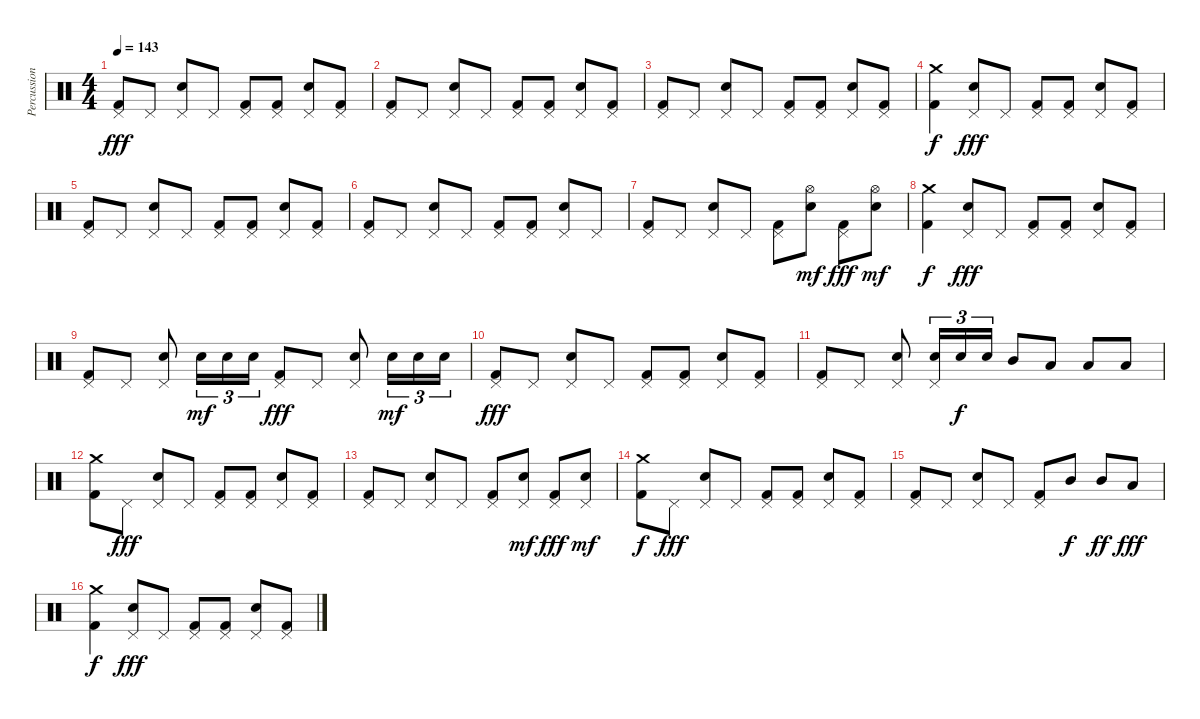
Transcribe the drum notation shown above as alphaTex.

\track ("Percussion" "Percussion") {instrument percussion}
\staff {score}
\articulation defaults
\ts (4 4)
\tempo 143
\clef neutral
\ks c
("Pedal Hi-Hat (hit)" "Kick (hit) 2").8{dy fff} "Pedal Hi-Hat (hit)".8 ("Pedal Hi-Hat (hit)" "Snare (hit) 2").8 "Pedal Hi-Hat (hit)".8 ("Pedal Hi-Hat (hit)" "Kick (hit) 2").8 ("Pedal Hi-Hat (hit)" "Kick (hit) 2").8 ("Pedal Hi-Hat (hit)" "Snare (hit) 2").8 ("Pedal Hi-Hat (hit)" "Kick (hit) 2").8 |
("Pedal Hi-Hat (hit)" "Kick (hit) 2").8 "Pedal Hi-Hat (hit)".8 ("Pedal Hi-Hat (hit)" "Snare (hit) 2").8 "Pedal Hi-Hat (hit)".8 ("Pedal Hi-Hat (hit)" "Kick (hit) 2").8 ("Pedal Hi-Hat (hit)" "Kick (hit) 2").8 ("Pedal Hi-Hat (hit)" "Snare (hit) 2").8 ("Pedal Hi-Hat (hit)" "Kick (hit) 2").8 |
("Pedal Hi-Hat (hit)" "Kick (hit) 2").8 "Pedal Hi-Hat (hit)".8 ("Pedal Hi-Hat (hit)" "Snare (hit) 2").8 "Pedal Hi-Hat (hit)".8 ("Pedal Hi-Hat (hit)" "Kick (hit) 2").8 ("Pedal Hi-Hat (hit)" "Kick (hit) 2").8 ("Pedal Hi-Hat (hit)" "Snare (hit) 2").8 ("Pedal Hi-Hat (hit)" "Kick (hit) 2").8 |
("Crash medium (hit)" "Kick (hit) 2").4{dy f} ("Pedal Hi-Hat (hit)" "Snare (hit) 2").8{dy fff} "Pedal Hi-Hat (hit)".8 ("Pedal Hi-Hat (hit)" "Kick (hit) 2").8 ("Pedal Hi-Hat (hit)" "Kick (hit) 2").8 ("Pedal Hi-Hat (hit)" "Snare (hit) 2").8 ("Pedal Hi-Hat (hit)" "Kick (hit) 2").8 |
("Pedal Hi-Hat (hit)" "Kick (hit) 2").8 "Pedal Hi-Hat (hit)".8 ("Pedal Hi-Hat (hit)" "Snare (hit) 2").8 "Pedal Hi-Hat (hit)".8 ("Pedal Hi-Hat (hit)" "Kick (hit) 2").8 ("Pedal Hi-Hat (hit)" "Kick (hit) 2").8 ("Pedal Hi-Hat (hit)" "Snare (hit) 2").8 ("Pedal Hi-Hat (hit)" "Kick (hit) 2").8 |
("Pedal Hi-Hat (hit)" "Kick (hit) 2").8 "Pedal Hi-Hat (hit)".8 ("Pedal Hi-Hat (hit)" "Snare (hit) 2").8 "Pedal Hi-Hat (hit)".8 ("Pedal Hi-Hat (hit)" "Kick (hit) 2").8 ("Pedal Hi-Hat (hit)" "Kick (hit) 2").8 ("Pedal Hi-Hat (hit)" "Snare (hit) 2").8 "Pedal Hi-Hat (hit)".8 |
("Pedal Hi-Hat (hit)" "Kick (hit) 2").8 "Pedal Hi-Hat (hit)".8 ("Pedal Hi-Hat (hit)" "Snare (hit) 2").8 "Pedal Hi-Hat (hit)".8 ("Pedal Hi-Hat (hit)" "Kick (hit) 2").8 ("Hi-Hat (open)" "Snare (hit) 2").8{dy mf} ("Pedal Hi-Hat (hit)" "Kick (hit) 2").8{dy fff} ("Hi-Hat (open)" "Snare (hit) 2").8{dy mf} |
("Crash medium (hit)" "Kick (hit) 2").4{dy f} ("Pedal Hi-Hat (hit)" "Snare (hit) 2").8{dy fff} "Pedal Hi-Hat (hit)".8 ("Pedal Hi-Hat (hit)" "Kick (hit) 2").8 ("Pedal Hi-Hat (hit)" "Kick (hit) 2").8 ("Pedal Hi-Hat (hit)" "Snare (hit) 2").8 ("Pedal Hi-Hat (hit)" "Kick (hit) 2").8 |
("Pedal Hi-Hat (hit)" "Kick (hit) 2").8 "Pedal Hi-Hat (hit)".8 ("Pedal Hi-Hat (hit)" "Snare (hit) 2").8 "Snare (hit) 2".16{tu (3 2) dy mf} "Snare (hit) 2".16{tu (3 2)} "Snare (hit) 2".16{tu (3 2)} ("Pedal Hi-Hat (hit)" "Kick (hit) 2").8{dy fff} "Pedal Hi-Hat (hit)".8 ("Pedal Hi-Hat (hit)" "Snare (hit) 2").8 "Snare (hit) 2".16{tu (3 2) dy mf} "Snare (hit) 2".16{tu (3 2)} "Snare (hit) 2".16{tu (3 2)} |
("Pedal Hi-Hat (hit)" "Kick (hit) 2").8{dy fff} "Pedal Hi-Hat (hit)".8 ("Pedal Hi-Hat (hit)" "Snare (hit) 2").8 "Pedal Hi-Hat (hit)".8 ("Pedal Hi-Hat (hit)" "Kick (hit) 2").8 ("Pedal Hi-Hat (hit)" "Kick (hit) 2").8 ("Pedal Hi-Hat (hit)" "Snare (hit) 2").8 ("Pedal Hi-Hat (hit)" "Kick (hit) 2").8 |
("Pedal Hi-Hat (hit)" "Kick (hit) 2").8 "Pedal Hi-Hat (hit)".8 ("Pedal Hi-Hat (hit)" "Snare (hit) 2").8 ("Pedal Hi-Hat (hit)" "Snare (hit) 2").16{tu (3 2)} "Snare (hit) 2".16{tu (3 2) dy f} "Snare (hit) 2".16{tu (3 2)} "Mid Tom (hit)".8 "Low Tom (hit)".8 "Low Tom (hit)".8 "Low Tom (hit)".8 |
("Crash medium (hit)" "Kick (hit) 2").8 "Pedal Hi-Hat (hit)".8{dy fff} ("Pedal Hi-Hat (hit)" "Snare (hit) 2").8 "Pedal Hi-Hat (hit)".8 ("Pedal Hi-Hat (hit)" "Kick (hit) 2").8 ("Pedal Hi-Hat (hit)" "Kick (hit) 2").8 ("Pedal Hi-Hat (hit)" "Snare (hit) 2").8 ("Pedal Hi-Hat (hit)" "Kick (hit) 2").8 |
("Pedal Hi-Hat (hit)" "Kick (hit) 2").8 "Pedal Hi-Hat (hit)".8 ("Pedal Hi-Hat (hit)" "Snare (hit) 2").8 "Pedal Hi-Hat (hit)".8 ("Pedal Hi-Hat (hit)" "Kick (hit) 2").8 ("Pedal Hi-Hat (hit)" "Snare (hit) 2").8{dy mf} ("Pedal Hi-Hat (hit)" "Kick (hit) 2").8{dy fff} ("Pedal Hi-Hat (hit)" "Snare (hit) 2").8{dy mf} |
("Crash medium (hit)" "Kick (hit) 2").8{dy f} "Pedal Hi-Hat (hit)".8{dy fff} ("Pedal Hi-Hat (hit)" "Snare (hit) 2").8 "Pedal Hi-Hat (hit)".8 ("Pedal Hi-Hat (hit)" "Kick (hit) 2").8 ("Pedal Hi-Hat (hit)" "Kick (hit) 2").8 ("Pedal Hi-Hat (hit)" "Snare (hit) 2").8 ("Pedal Hi-Hat (hit)" "Kick (hit) 2").8 |
("Pedal Hi-Hat (hit)" "Kick (hit) 2").8 "Pedal Hi-Hat (hit)".8 ("Pedal Hi-Hat (hit)" "Snare (hit) 2").8 "Pedal Hi-Hat (hit)".8 ("Pedal Hi-Hat (hit)" "Kick (hit) 2").8 "Mid Tom (hit)".8{dy f} "Mid Tom (hit)".8{dy ff} "Low Tom (hit)".8{dy fff} |
("Crash medium (hit)" "Kick (hit) 2").4{dy f} ("Pedal Hi-Hat (hit)" "Snare (hit) 2").8{dy fff} "Pedal Hi-Hat (hit)".8 ("Pedal Hi-Hat (hit)" "Kick (hit) 2").8 ("Pedal Hi-Hat (hit)" "Kick (hit) 2").8 ("Pedal Hi-Hat (hit)" "Snare (hit) 2").8 ("Pedal Hi-Hat (hit)" "Kick (hit) 2").8
